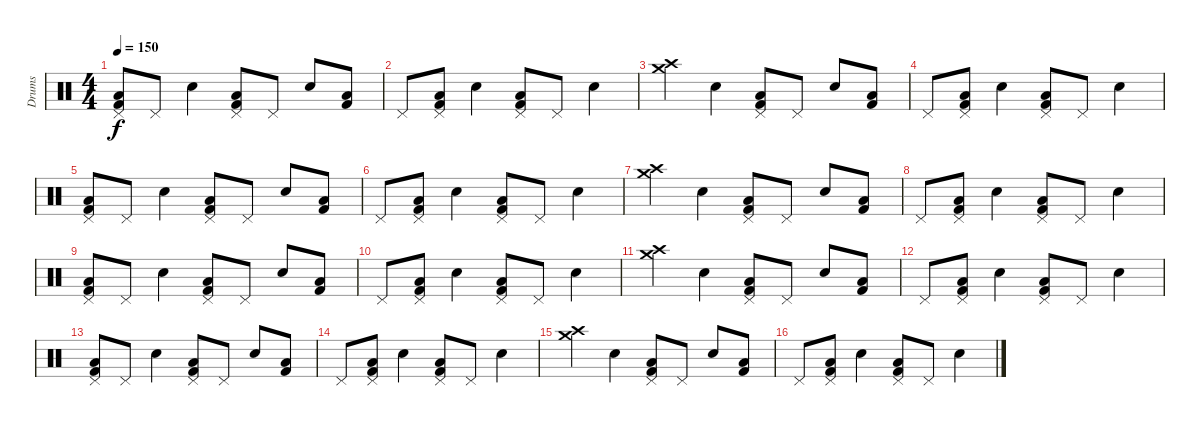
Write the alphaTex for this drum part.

\track ("Drums" "Drums") {instrument percussion}
\staff {score}
\articulation defaults
\ts (4 4)
\tempo 150
\clef neutral
\ks c
("Pedal Hi-Hat (hit)" "Low Floor Tom (hit)" "Kick (hit) 2").8{dy f} "Pedal Hi-Hat (hit)".8 "Snare (hit) 2".4 ("Pedal Hi-Hat (hit)" "Low Floor Tom (hit)" "Kick (hit) 2").8 "Pedal Hi-Hat (hit)".8 "Snare (hit) 2".8 ("Low Floor Tom (hit)" "Kick (hit) 2").8 |
"Pedal Hi-Hat (hit)".8 ("Pedal Hi-Hat (hit)" "Low Floor Tom (hit)" "Kick (hit) 2").8 "Snare (hit) 2".4 ("Pedal Hi-Hat (hit)" "Low Floor Tom (hit)" "Kick (hit) 2").8 "Pedal Hi-Hat (hit)".8 "Snare (hit) 2".4 |
("Crash high (hit)" "Crash medium (hit)").4 "Snare (hit) 2".4 ("Pedal Hi-Hat (hit)" "Low Floor Tom (hit)" "Kick (hit) 2").8 "Pedal Hi-Hat (hit)".8 "Snare (hit) 2".8 ("Low Floor Tom (hit)" "Kick (hit) 2").8 |
"Pedal Hi-Hat (hit)".8 ("Pedal Hi-Hat (hit)" "Low Floor Tom (hit)" "Kick (hit) 2").8 "Snare (hit) 2".4 ("Pedal Hi-Hat (hit)" "Low Floor Tom (hit)" "Kick (hit) 2").8 "Pedal Hi-Hat (hit)".8 "Snare (hit) 2".4 |
("Pedal Hi-Hat (hit)" "Low Floor Tom (hit)" "Kick (hit) 2").8 "Pedal Hi-Hat (hit)".8 "Snare (hit) 2".4 ("Pedal Hi-Hat (hit)" "Low Floor Tom (hit)" "Kick (hit) 2").8 "Pedal Hi-Hat (hit)".8 "Snare (hit) 2".8 ("Low Floor Tom (hit)" "Kick (hit) 2").8 |
"Pedal Hi-Hat (hit)".8 ("Pedal Hi-Hat (hit)" "Low Floor Tom (hit)" "Kick (hit) 2").8 "Snare (hit) 2".4 ("Pedal Hi-Hat (hit)" "Low Floor Tom (hit)" "Kick (hit) 2").8 "Pedal Hi-Hat (hit)".8 "Snare (hit) 2".4 |
("Crash high (hit)" "Crash medium (hit)").4 "Snare (hit) 2".4 ("Pedal Hi-Hat (hit)" "Low Floor Tom (hit)" "Kick (hit) 2").8 "Pedal Hi-Hat (hit)".8 "Snare (hit) 2".8 ("Low Floor Tom (hit)" "Kick (hit) 2").8 |
"Pedal Hi-Hat (hit)".8 ("Pedal Hi-Hat (hit)" "Low Floor Tom (hit)" "Kick (hit) 2").8 "Snare (hit) 2".4 ("Pedal Hi-Hat (hit)" "Low Floor Tom (hit)" "Kick (hit) 2").8 "Pedal Hi-Hat (hit)".8 "Snare (hit) 2".4 |
("Pedal Hi-Hat (hit)" "Low Floor Tom (hit)" "Kick (hit) 2").8 "Pedal Hi-Hat (hit)".8 "Snare (hit) 2".4 ("Pedal Hi-Hat (hit)" "Low Floor Tom (hit)" "Kick (hit) 2").8 "Pedal Hi-Hat (hit)".8 "Snare (hit) 2".8 ("Low Floor Tom (hit)" "Kick (hit) 2").8 |
"Pedal Hi-Hat (hit)".8 ("Pedal Hi-Hat (hit)" "Low Floor Tom (hit)" "Kick (hit) 2").8 "Snare (hit) 2".4 ("Pedal Hi-Hat (hit)" "Low Floor Tom (hit)" "Kick (hit) 2").8 "Pedal Hi-Hat (hit)".8 "Snare (hit) 2".4 |
("Crash high (hit)" "Crash medium (hit)").4 "Snare (hit) 2".4 ("Pedal Hi-Hat (hit)" "Low Floor Tom (hit)" "Kick (hit) 2").8 "Pedal Hi-Hat (hit)".8 "Snare (hit) 2".8 ("Low Floor Tom (hit)" "Kick (hit) 2").8 |
"Pedal Hi-Hat (hit)".8 ("Pedal Hi-Hat (hit)" "Low Floor Tom (hit)" "Kick (hit) 2").8 "Snare (hit) 2".4 ("Pedal Hi-Hat (hit)" "Low Floor Tom (hit)" "Kick (hit) 2").8 "Pedal Hi-Hat (hit)".8 "Snare (hit) 2".4 |
("Pedal Hi-Hat (hit)" "Low Floor Tom (hit)" "Kick (hit) 2").8 "Pedal Hi-Hat (hit)".8 "Snare (hit) 2".4 ("Pedal Hi-Hat (hit)" "Low Floor Tom (hit)" "Kick (hit) 2").8 "Pedal Hi-Hat (hit)".8 "Snare (hit) 2".8 ("Low Floor Tom (hit)" "Kick (hit) 2").8 |
"Pedal Hi-Hat (hit)".8 ("Pedal Hi-Hat (hit)" "Low Floor Tom (hit)" "Kick (hit) 2").8 "Snare (hit) 2".4 ("Pedal Hi-Hat (hit)" "Low Floor Tom (hit)" "Kick (hit) 2").8 "Pedal Hi-Hat (hit)".8 "Snare (hit) 2".4 |
("Crash high (hit)" "Crash medium (hit)").4 "Snare (hit) 2".4 ("Pedal Hi-Hat (hit)" "Low Floor Tom (hit)" "Kick (hit) 2").8 "Pedal Hi-Hat (hit)".8 "Snare (hit) 2".8 ("Low Floor Tom (hit)" "Kick (hit) 2").8 |
"Pedal Hi-Hat (hit)".8 ("Pedal Hi-Hat (hit)" "Low Floor Tom (hit)" "Kick (hit) 2").8 "Snare (hit) 2".4 ("Pedal Hi-Hat (hit)" "Low Floor Tom (hit)" "Kick (hit) 2").8 "Pedal Hi-Hat (hit)".8 "Snare (hit) 2".4
